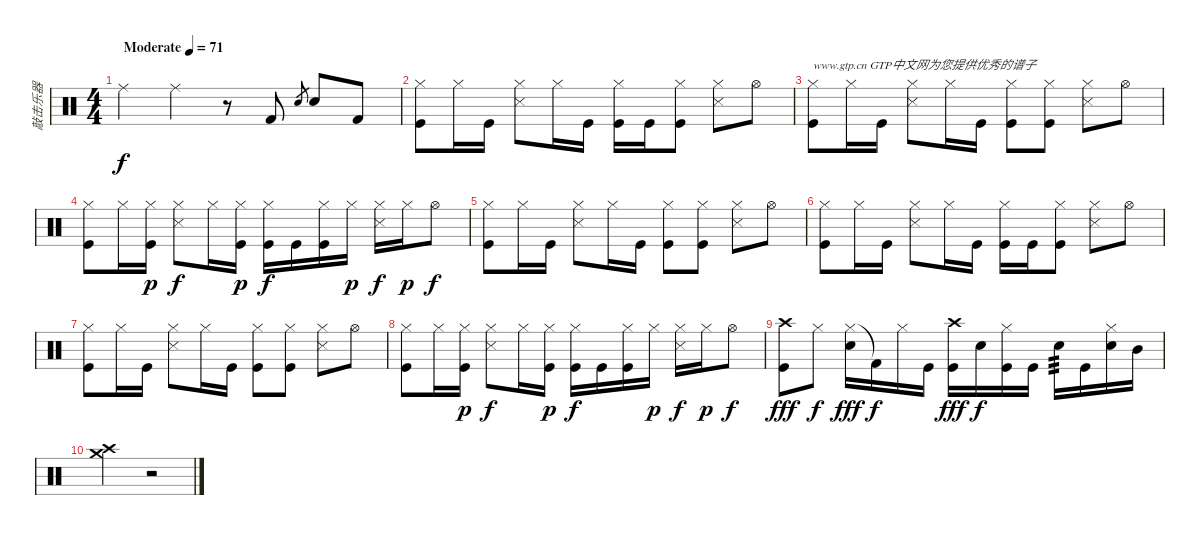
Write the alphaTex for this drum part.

\track ("敲击乐器" "敲击乐器") {instrument percussion}
\staff {score}
\articulation defaults
\ts (4 4)
\tempo (71 "Moderate")
\clef neutral
\ks c "Ride (middle)".4{dy f} "Ride (middle)".4
r.8 "Kick (hit) 2".8 "Electric Snare (hit)".8{gr} "Electric Snare (hit)".8 "Kick (hit) 2".8 |
("Hi-Hat (closed)" "Kick (hit)").8 "Hi-Hat (closed)".16 "Kick (hit)".16 ("Hi-Hat (closed)" "Snare (side stick) 3").8 "Hi-Hat (closed)".16 "Kick (hit)".16 ("Hi-Hat (closed)" "Kick (hit)").16 "Kick (hit)".16 ("Hi-Hat (closed)" "Kick (hit)").8 ("Hi-Hat (closed)" "Snare (side stick) 3").8 "Hi-Hat (open)".8 |
("Hi-Hat (closed)" "Kick (hit)").8{txt "www.gtp.cn GTP中文网为您提供优秀的谱子"} "Hi-Hat (closed)".16 "Kick (hit)".16 ("Hi-Hat (closed)" "Snare (side stick) 3").8 "Hi-Hat (closed)".16 "Kick (hit)".16 ("Hi-Hat (closed)" "Kick (hit)").8 ("Hi-Hat (closed)" "Kick (hit)").8 ("Hi-Hat (closed)" "Snare (side stick) 3").8 "Hi-Hat (open)".8 |
("Hi-Hat (closed)" "Kick (hit)").8 "Hi-Hat (closed)".16 ("Hi-Hat (closed)" "Kick (hit)").16{dy p} ("Hi-Hat (closed)" "Snare (side stick) 3").8{dy f} "Hi-Hat (closed)".16 ("Hi-Hat (closed)" "Kick (hit)").16{dy p} ("Hi-Hat (closed)" "Kick (hit)").16{dy f} "Kick (hit)".16 ("Hi-Hat (closed)" "Kick (hit)").16 "Hi-Hat (closed)".16{dy p} ("Hi-Hat (closed)" "Snare (side stick) 3").16{dy f} "Hi-Hat (closed)".16{dy p} "Hi-Hat (open)".8{dy f} |
("Hi-Hat (closed)" "Kick (hit)").8 "Hi-Hat (closed)".16 "Kick (hit)".16 ("Hi-Hat (closed)" "Snare (side stick) 3").8 "Hi-Hat (closed)".16 "Kick (hit)".16 ("Hi-Hat (closed)" "Kick (hit)").8 ("Hi-Hat (closed)" "Kick (hit)").8 ("Hi-Hat (closed)" "Snare (side stick) 3").8 "Hi-Hat (open)".8 |
("Hi-Hat (closed)" "Kick (hit)").8 "Hi-Hat (closed)".16 "Kick (hit)".16 ("Hi-Hat (closed)" "Snare (side stick) 3").8 "Hi-Hat (closed)".16 "Kick (hit)".16 ("Hi-Hat (closed)" "Kick (hit)").16 "Kick (hit)".16 ("Hi-Hat (closed)" "Kick (hit)").8 ("Hi-Hat (closed)" "Snare (side stick) 3").8 "Hi-Hat (open)".8 |
("Hi-Hat (closed)" "Kick (hit)").8 "Hi-Hat (closed)".16 "Kick (hit)".16 ("Hi-Hat (closed)" "Snare (side stick) 3").8 "Hi-Hat (closed)".16 "Kick (hit)".16 ("Hi-Hat (closed)" "Kick (hit)").8 ("Hi-Hat (closed)" "Kick (hit)").8 ("Hi-Hat (closed)" "Snare (side stick) 3").8 "Hi-Hat (open)".8 |
("Hi-Hat (closed)" "Kick (hit)").8 "Hi-Hat (closed)".16 ("Hi-Hat (closed)" "Kick (hit)").16{dy p} ("Hi-Hat (closed)" "Snare (side stick) 3").8{dy f} "Hi-Hat (closed)".16 ("Hi-Hat (closed)" "Kick (hit)").16{dy p} ("Hi-Hat (closed)" "Kick (hit)").16{dy f} "Kick (hit)".16 ("Hi-Hat (closed)" "Kick (hit)").16 "Hi-Hat (closed)".16{dy p} ("Hi-Hat (closed)" "Snare (side stick) 3").16{dy f} "Hi-Hat (closed)".16{dy p} "Hi-Hat (open)".8{dy f} |
("Crash high (hit)" "Kick (hit)").8{dy fff} "Hi-Hat (closed)".8{dy f} ("Hi-Hat (closed)" "Electric Snare (hit)").16{dy fff} "Kick (hit) 2"{t}.16{dy f} "Hi-Hat (closed)".16 "Kick (hit)".16 ("Crash high (hit)" "Kick (hit)").16{dy fff} "Electric Snare (hit)".16{dy f} ("Hi-Hat (closed)" "Kick (hit)").16 "Kick (hit)".16 "Electric Snare (hit)".16{tp 3} "Kick (hit)".16 ("Hi-Hat (closed)" "Electric Snare (hit)").16 "Mid Tom (hit)".16 |
("Crash high (hit)" "Crash medium (hit)").2 r.2
